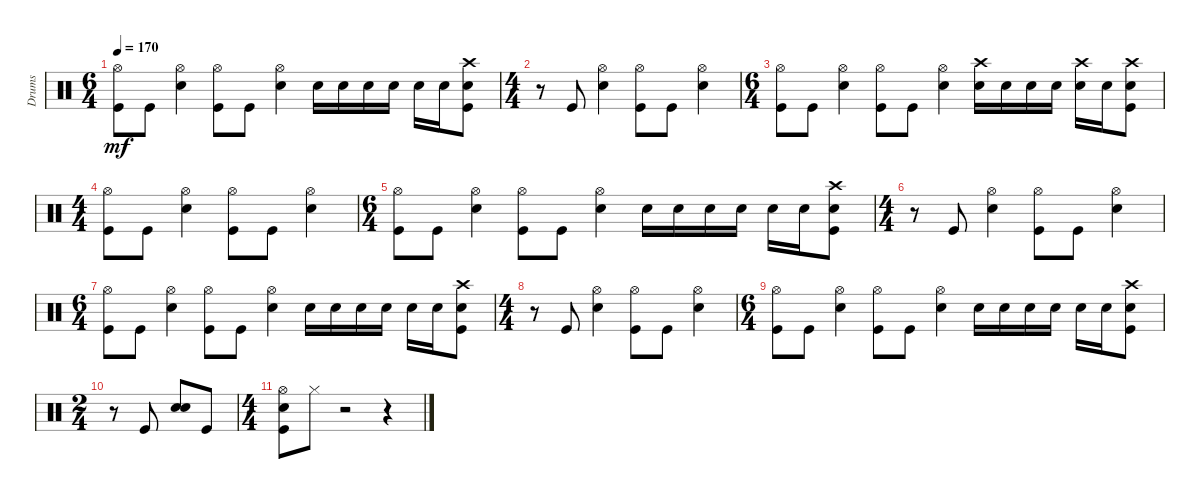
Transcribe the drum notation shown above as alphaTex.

\track ("Drums" "Drums") {instrument percussion}
\staff {score}
\articulation defaults
\ts (6 4)
\tempo 170
\clef neutral
\ks c
("Hi-Hat (open)" "Kick (hit)").8{dy mf} "Kick (hit)".8 ("Hi-Hat (open)" "Electric Snare (hit)").4 ("Hi-Hat (open)" "Kick (hit)").8 "Kick (hit)".8 ("Hi-Hat (open)" "Electric Snare (hit)").4 "Electric Snare (hit)".16 "Electric Snare (hit)".16 "Electric Snare (hit)".16 "Electric Snare (hit)".16 "Electric Snare (hit)".16 "Electric Snare (hit)".16 ("Crash high (hit)" "Electric Snare (hit)" "Kick (hit)").8 |
\ts (4 4)
r.8 "Kick (hit)".8 ("Hi-Hat (open)" "Electric Snare (hit)").4 ("Hi-Hat (open)" "Kick (hit)").8 "Kick (hit)".8 ("Hi-Hat (open)" "Electric Snare (hit)").4 |
\ts (6 4)
("Hi-Hat (open)" "Kick (hit)").8 "Kick (hit)".8 ("Hi-Hat (open)" "Electric Snare (hit)").4 ("Hi-Hat (open)" "Kick (hit)").8 "Kick (hit)".8 ("Hi-Hat (open)" "Electric Snare (hit)").4 ("Crash high (hit)" "Electric Snare (hit)").16 "Electric Snare (hit)".16 "Electric Snare (hit)".16 "Electric Snare (hit)".16 ("Crash high (hit)" "Electric Snare (hit)").16 "Electric Snare (hit)".16 ("Crash high (hit)" "Electric Snare (hit)" "Kick (hit)").8 |
\ts (4 4)
("Hi-Hat (open)" "Kick (hit)").8 "Kick (hit)".8 ("Hi-Hat (open)" "Electric Snare (hit)").4 ("Hi-Hat (open)" "Kick (hit)").8 "Kick (hit)".8 ("Hi-Hat (open)" "Electric Snare (hit)").4 |
\ts (6 4)
("Hi-Hat (open)" "Kick (hit)").8 "Kick (hit)".8 ("Hi-Hat (open)" "Electric Snare (hit)").4 ("Hi-Hat (open)" "Kick (hit)").8 "Kick (hit)".8 ("Hi-Hat (open)" "Electric Snare (hit)").4 "Electric Snare (hit)".16 "Electric Snare (hit)".16 "Electric Snare (hit)".16 "Electric Snare (hit)".16 "Electric Snare (hit)".16 "Electric Snare (hit)".16 ("Crash high (hit)" "Electric Snare (hit)" "Kick (hit)").8 |
\ts (4 4)
r.8 "Kick (hit)".8 ("Hi-Hat (open)" "Electric Snare (hit)").4 ("Hi-Hat (open)" "Kick (hit)").8 "Kick (hit)".8 ("Hi-Hat (open)" "Electric Snare (hit)").4 |
\ts (6 4)
("Hi-Hat (open)" "Kick (hit)").8 "Kick (hit)".8 ("Hi-Hat (open)" "Electric Snare (hit)").4 ("Hi-Hat (open)" "Kick (hit)").8 "Kick (hit)".8 ("Hi-Hat (open)" "Electric Snare (hit)").4 "Electric Snare (hit)".16 "Electric Snare (hit)".16 "Electric Snare (hit)".16 "Electric Snare (hit)".16 "Electric Snare (hit)".16 "Electric Snare (hit)".16 ("Crash high (hit)" "Electric Snare (hit)" "Kick (hit)").8 |
\ts (4 4)
r.8 "Kick (hit)".8 ("Hi-Hat (open)" "Electric Snare (hit)").4 ("Hi-Hat (open)" "Kick (hit)").8 "Kick (hit)".8 ("Hi-Hat (open)" "Electric Snare (hit)").4 |
\ts (6 4)
("Hi-Hat (open)" "Kick (hit)").8 "Kick (hit)".8 ("Hi-Hat (open)" "Electric Snare (hit)").4 ("Hi-Hat (open)" "Kick (hit)").8 "Kick (hit)".8 ("Hi-Hat (open)" "Electric Snare (hit)").4 "Electric Snare (hit)".16 "Electric Snare (hit)".16 "Electric Snare (hit)".16 "Electric Snare (hit)".16 "Electric Snare (hit)".16 "Electric Snare (hit)".16 ("Crash high (hit)" "Electric Snare (hit)" "Kick (hit)").8 |
\ts (2 4)
r.8 "Kick (hit)".8 ("Electric Snare (hit)" "Electric Snare (hit)").8 "Kick (hit)".8 |
\ts (4 4)
("Hi-Hat (open)" "Electric Snare (hit)" "Kick (hit)").8 "Hi-Hat (closed)".8 r.2 r.4
